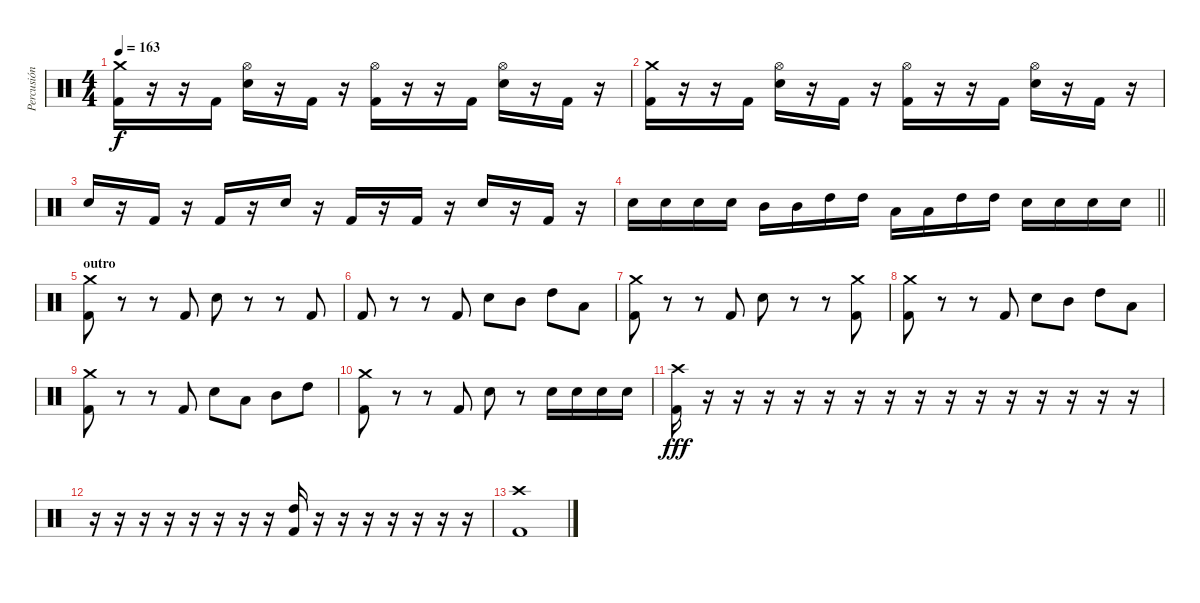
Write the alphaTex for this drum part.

\track ("Percusión" "Percusión") {instrument percussion}
\staff {score}
\articulation defaults
\ts (4 4)
\tempo 163
\clef neutral
\ks c
("Crash medium (hit)" "Kick (hit) 2").16{dy f} r.16 r.16 "Kick (hit) 2".16 ("Hi-Hat (open)" "Snare (hit) 2").16 r.16 "Kick (hit) 2".16 r.16 ("Hi-Hat (open)" "Kick (hit) 2").16 r.16 r.16 "Kick (hit) 2".16 ("Hi-Hat (open)" "Snare (hit) 2").16 r.16 "Kick (hit) 2".16 r.16 |
("Crash medium (hit)" "Kick (hit) 2").16 r.16 r.16 "Kick (hit) 2".16 ("Hi-Hat (open)" "Snare (hit) 2").16 r.16 "Kick (hit) 2".16 r.16 ("Hi-Hat (open)" "Kick (hit) 2").16 r.16 r.16 "Kick (hit) 2".16 ("Hi-Hat (open)" "Snare (hit) 2").16 r.16 "Kick (hit) 2".16 r.16 |
"Snare (hit) 2".16 r.16 "Kick (hit) 2".16 r.16 "Kick (hit) 2".16 r.16 "Snare (hit) 2".16 r.16 "Kick (hit) 2".16 r.16 "Kick (hit) 2".16 r.16 "Snare (hit) 2".16 r.16 "Kick (hit) 2".16 r.16 |
\barLineRight lightlight "Snare (hit) 2".16 "Snare (hit) 2".16 "Snare (hit) 2".16 "Snare (hit) 2".16 "Mid Tom (hit)".16 "Mid Tom (hit)".16 "High Tom (hit)".16 "High Tom (hit)".16 "Low Tom (hit)".16 "Low Tom (hit)".16 "High Tom (hit)".16 "High Tom (hit)".16 "Snare (hit) 2".16 "Snare (hit) 2".16 "Snare (hit) 2".16 "Snare (hit) 2".16
|
\section ("" "outro")
("Crash medium (hit)" "Kick (hit) 2").8 r.8 r.8 "Kick (hit) 2".8 "Snare (hit) 2".8 r.8 r.8 "Kick (hit) 2".8 |
"Kick (hit) 2".8 r.8 r.8 "Kick (hit) 2".8 "Snare (hit) 2".8 "Mid Tom (hit)".8 "High Tom (hit)".8 "Low Tom (hit)".8 |
("Crash medium (hit)" "Kick (hit) 2").8 r.8 r.8 "Kick (hit) 2".8 "Snare (hit) 2".8 r.8 r.8 ("Crash medium (hit)" "Kick (hit) 2").8 |
("Crash medium (hit)" "Kick (hit) 2").8 r.8 r.8 "Kick (hit) 2".8 "Snare (hit) 2".8 "Mid Tom (hit)".8 "High Tom (hit)".8 "Low Tom (hit)".8 |
("Crash medium (hit)" "Kick (hit) 2").8 r.8 r.8 "Kick (hit) 2".8 "Snare (hit) 2".8 "Low Tom (hit)".8 "Mid Tom (hit)".8 "High Tom (hit)".8 |
("Crash medium (hit)" "Kick (hit) 2").8 r.8 r.8 "Kick (hit) 2".8 "Snare (hit) 2".8 r.8 "Snare (hit) 2".16 "Snare (hit) 2".16 "Snare (hit) 2".16 "Snare (hit) 2".16 |
("Crash high (hit)" "Kick (hit) 2").16{dy fff} r.16 r.16 r.16 r.16 r.16 r.16 r.16 r.16 r.16 r.16 r.16 r.16 r.16 r.16 r.16 |
r.16 r.16 r.16 r.16 r.16 r.16 r.16 r.16 ("High Tom (hit)" "Kick (hit) 2").16 r.16 r.16 r.16 r.16 r.16 r.16 r.16 |
("Crash high (hit)" "Kick (hit) 2").1
